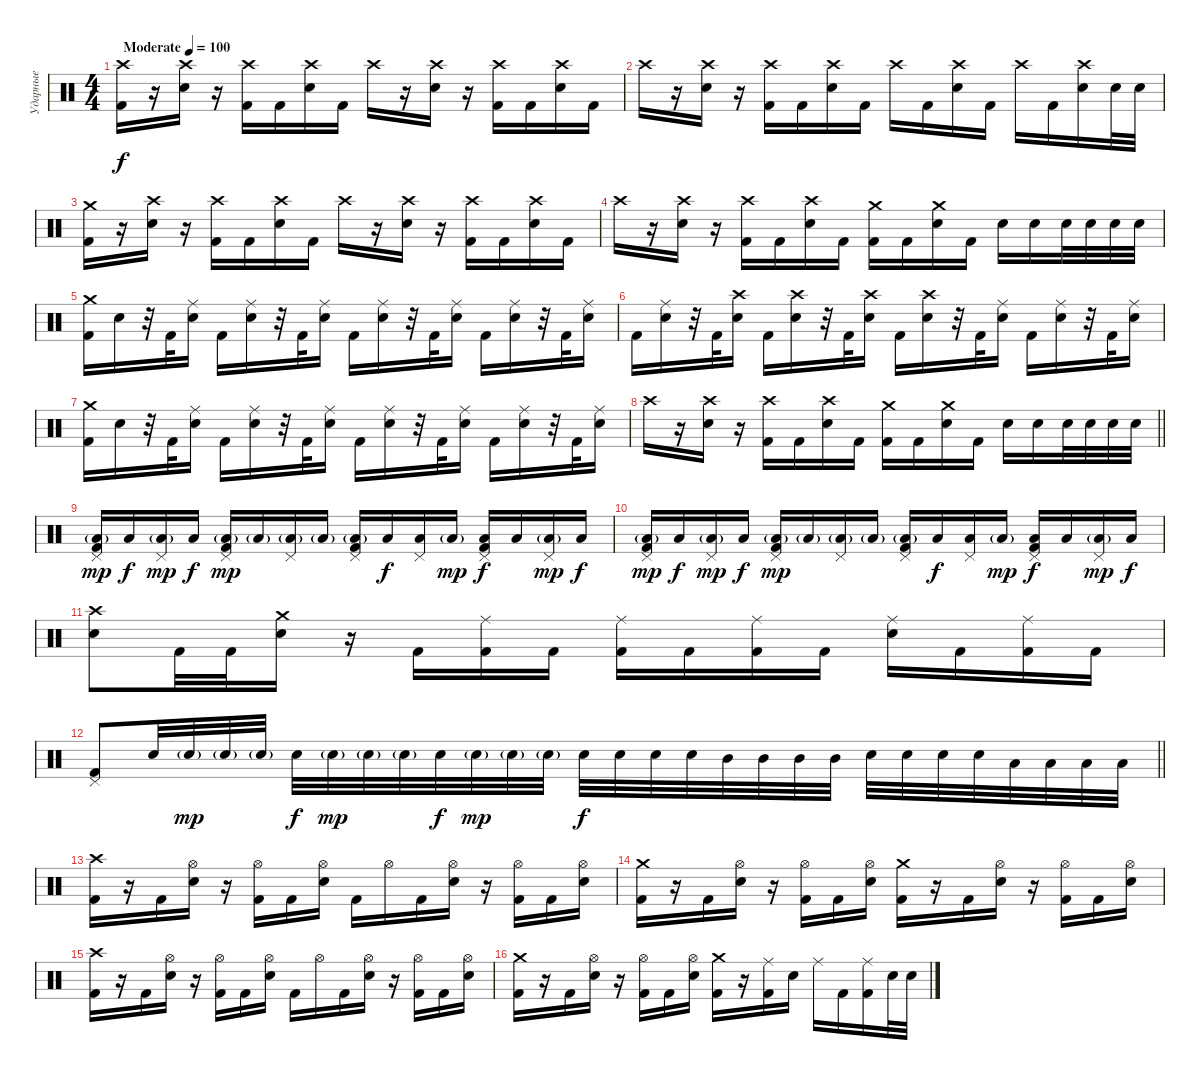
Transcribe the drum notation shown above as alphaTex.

\track ("Ударные" "Ударные") {instrument percussion}
\staff {score}
\articulation defaults
\ts (4 4)
\section ("" "")
\tempo (100 "Moderate")
\clef neutral
\ks c
("Crash high (hit)" "Kick (hit) 2").16{dy f} r.16 ("Crash high (hit)" "Electric Snare (hit)").16 r.16 ("Crash high (hit)" "Kick (hit) 2").16 "Kick (hit) 2".16 ("Crash high (hit)" "Electric Snare (hit)").16 "Kick (hit) 2".16 "Crash high (hit)".16 r.16 ("Crash high (hit)" "Electric Snare (hit)").16 r.16 ("Crash high (hit)" "Kick (hit) 2").16 "Kick (hit) 2".16 ("Crash high (hit)" "Electric Snare (hit)").16 "Kick (hit) 2".16 |
"Crash high (hit)".16 r.16 ("Crash high (hit)" "Electric Snare (hit)").16 r.16 ("Crash high (hit)" "Kick (hit) 2").16 "Kick (hit) 2".16 ("Crash high (hit)" "Electric Snare (hit)").16 "Kick (hit) 2".16 "Crash high (hit)".16 "Kick (hit) 2".16 ("Crash high (hit)" "Electric Snare (hit)").16 "Kick (hit) 2".16 "Crash high (hit)".16 "Kick (hit) 2".16 ("Crash high (hit)" "Electric Snare (hit)").16 "Electric Snare (hit)".32 "Electric Snare (hit)".32 |
("Crash medium (hit)" "Kick (hit) 2").16 r.16 ("Crash high (hit)" "Electric Snare (hit)").16 r.16 ("Crash high (hit)" "Kick (hit) 2").16 "Kick (hit) 2".16 ("Crash high (hit)" "Electric Snare (hit)").16 "Kick (hit) 2".16 "Crash high (hit)".16 r.16 ("Crash high (hit)" "Electric Snare (hit)").16 r.16 ("Crash high (hit)" "Kick (hit) 2").16 "Kick (hit) 2".16 ("Crash high (hit)" "Electric Snare (hit)").16 "Kick (hit) 2".16 |
"Crash high (hit)".16 r.16 ("Crash high (hit)" "Electric Snare (hit)").16 r.16 ("Crash high (hit)" "Kick (hit) 2").16 "Kick (hit) 2".16 ("Crash high (hit)" "Electric Snare (hit)").16 "Kick (hit) 2".16 ("Crash medium (hit)" "Kick (hit) 2").16 "Kick (hit) 2".16 ("Crash medium (hit)" "Electric Snare (hit)").16 "Kick (hit) 2".16 "Electric Snare (hit)".16 "Electric Snare (hit)".16 "Electric Snare (hit)".32 "Electric Snare (hit)".32 "Electric Snare (hit)".32 "Electric Snare (hit)".32 |
("Crash medium (hit)" "Kick (hit) 2").16 "Electric Snare (hit)".16 r.32 "Kick (hit) 2".32 ("Ride (middle)" "Electric Snare (hit)").16 "Kick (hit) 2".16 ("Ride (middle)" "Electric Snare (hit)").16 r.32 "Kick (hit) 2".32 ("Ride (middle)" "Electric Snare (hit)").16 "Kick (hit) 2".16 ("Ride (middle)" "Electric Snare (hit)").16 r.32 "Kick (hit) 2".32 ("Ride (middle)" "Electric Snare (hit)").16 "Kick (hit) 2".16 ("Ride (middle)" "Electric Snare (hit)").16 r.32 "Kick (hit) 2".32 ("Ride (middle)" "Electric Snare (hit)").16 |
"Kick (hit) 2".16 ("Ride (middle)" "Electric Snare (hit)").16 r.32 "Kick (hit) 2".32 ("Crash high (hit)" "Electric Snare (hit)").16 "Kick (hit) 2".16 ("Crash high (hit)" "Electric Snare (hit)").16 r.32 "Kick (hit) 2".32 ("Crash high (hit)" "Electric Snare (hit)").16 "Kick (hit) 2".16 ("Crash high (hit)" "Electric Snare (hit)").16 r.32 "Kick (hit) 2".32 ("Ride (middle)" "Electric Snare (hit)").16 "Kick (hit) 2".16 ("Ride (middle)" "Electric Snare (hit)").16 r.32 "Kick (hit) 2".32 ("Ride (middle)" "Electric Snare (hit)").16 |
("Crash medium (hit)" "Kick (hit) 2").16 "Electric Snare (hit)".16 r.32 "Kick (hit) 2".32 ("Ride (middle)" "Electric Snare (hit)").16 "Kick (hit) 2".16 ("Ride (middle)" "Electric Snare (hit)").16 r.32 "Kick (hit) 2".32 ("Ride (middle)" "Electric Snare (hit)").16 "Kick (hit) 2".16 ("Ride (middle)" "Electric Snare (hit)").16 r.32 "Kick (hit) 2".32 ("Ride (middle)" "Electric Snare (hit)").16 "Kick (hit) 2".16 ("Ride (middle)" "Electric Snare (hit)").16 r.32 "Kick (hit) 2".32 ("Ride (middle)" "Electric Snare (hit)").16 |
\barLineRight lightlight "Crash high (hit)".16
r.16 ("Crash high (hit)" "Electric Snare (hit)").16 r.16 ("Crash high (hit)" "Kick (hit) 2").16 "Kick (hit) 2".16 ("Crash high (hit)" "Electric Snare (hit)").16 "Kick (hit) 2".16 ("Crash medium (hit)" "Kick (hit) 2").16 "Kick (hit) 2".16 ("Crash medium (hit)" "Electric Snare (hit)").16 "Kick (hit) 2".16 "Electric Snare (hit)".16 "Electric Snare (hit)".16 "Electric Snare (hit)".32 "Electric Snare (hit)".32 "Electric Snare (hit)".32 "Electric Snare (hit)".32 |
\section ("" "")
("Pedal Hi-Hat (hit)" "Low Floor Tom (hit)"{g} "Kick (hit) 2").16{dy mp} "Low Floor Tom (hit)".16{dy f} ("Pedal Hi-Hat (hit)" "Low Floor Tom (hit)"{g}).16{dy mp} "Low Floor Tom (hit)".16{dy f} ("Pedal Hi-Hat (hit)" "Low Floor Tom (hit)"{g} "Kick (hit) 2").16{dy mp} "Low Floor Tom (hit)"{g}.16 ("Pedal Hi-Hat (hit)" "Low Floor Tom (hit)"{g}).16 "Low Floor Tom (hit)"{g}.16 ("Pedal Hi-Hat (hit)" "Low Floor Tom (hit)"{g} "Kick (hit) 2").16 "Low Floor Tom (hit)".16{dy f} ("Pedal Hi-Hat (hit)" "Low Floor Tom (hit)").16 "Low Floor Tom (hit)"{g}.16{dy mp} ("Pedal Hi-Hat (hit)" "Low Floor Tom (hit)" "Kick (hit) 2").16{dy f} "Low Floor Tom (hit)".16 ("Pedal Hi-Hat (hit)" "Low Floor Tom (hit)"{g}).16{dy mp} "Low Floor Tom (hit)".16{dy f} |
("Pedal Hi-Hat (hit)" "Low Floor Tom (hit)"{g} "Kick (hit) 2").16{dy mp} "Low Floor Tom (hit)".16{dy f} ("Pedal Hi-Hat (hit)" "Low Floor Tom (hit)"{g}).16{dy mp} "Low Floor Tom (hit)".16{dy f} ("Pedal Hi-Hat (hit)" "Low Floor Tom (hit)"{g} "Kick (hit) 2").16{dy mp} "Low Floor Tom (hit)"{g}.16 ("Pedal Hi-Hat (hit)" "Low Floor Tom (hit)"{g}).16 "Low Floor Tom (hit)"{g}.16 ("Pedal Hi-Hat (hit)" "Low Floor Tom (hit)"{g} "Kick (hit) 2").16 "Low Floor Tom (hit)".16{dy f} ("Pedal Hi-Hat (hit)" "Low Floor Tom (hit)").16 "Low Floor Tom (hit)"{g}.16{dy mp} ("Pedal Hi-Hat (hit)" "Low Floor Tom (hit)" "Kick (hit) 2").16{dy f} "Low Floor Tom (hit)".16 ("Pedal Hi-Hat (hit)" "Low Floor Tom (hit)"{g}).16{dy mp} "Low Floor Tom (hit)".16{dy f} |
("Crash high (hit)" "Electric Snare (hit)").8 "Kick (hit) 2".32 "Kick (hit) 2".32 ("Crash medium (hit)" "Electric Snare (hit)").16 r.16 "Kick (hit) 2".16 ("Ride (middle)" "Kick (hit) 2").16 "Kick (hit) 2".16 ("Ride (middle)" "Kick (hit) 2").16 "Kick (hit) 2".16 ("Ride (middle)" "Kick (hit) 2").16 "Kick (hit) 2".16 ("Ride (middle)" "Electric Snare (hit)").16 "Kick (hit) 2".16 ("Ride (middle)" "Kick (hit) 2").16 "Kick (hit) 2".16 |
\barLineRight lightlight
("Pedal Hi-Hat (hit)" "Kick (hit) 2").8 "Electric Snare (hit)".32 "Electric Snare (hit)"{g}.32{dy mp} "Electric Snare (hit)"{g}.32 "Electric Snare (hit)"{g}.32 "Electric Snare (hit)".32{dy f} "Electric Snare (hit)"{g}.32{dy mp} "Electric Snare (hit)"{g}.32 "Electric Snare (hit)"{g}.32 "Electric Snare (hit)".32{dy f} "Electric Snare (hit)"{g}.32{dy mp} "Electric Snare (hit)"{g}.32 "Electric Snare (hit)"{g}.32 "Electric Snare (hit)".32{dy f} "Electric Snare (hit)".32 "Electric Snare (hit)".32 "Electric Snare (hit)".32 "Mid Tom (hit)".32 "Mid Tom (hit)".32 "Mid Tom (hit)".32 "Mid Tom (hit)".32 "Electric Snare (hit)".32 "Electric Snare (hit)".32 "Electric Snare (hit)".32 "Electric Snare (hit)".32 "Low Tom (hit)".32 "Low Tom (hit)".32 "Low Tom (hit)".32 "Low Tom (hit)".32 |
\section ("" "")
("Crash high (hit)" "Kick (hit) 2").16 r.16 "Kick (hit) 2".16 ("Hi-Hat (open)" "Electric Snare (hit)").16 r.16 ("Hi-Hat (open)" "Kick (hit) 2").16 "Kick (hit) 2".16 ("Hi-Hat (open)" "Electric Snare (hit)").16 "Kick (hit) 2".16 "Hi-Hat (open)".16 "Kick (hit) 2".16 ("Hi-Hat (open)" "Electric Snare (hit)").16 r.16 ("Hi-Hat (open)" "Kick (hit) 2").16 "Kick (hit) 2".16 ("Hi-Hat (open)" "Electric Snare (hit)").16 |
("Crash medium (hit)" "Kick (hit) 2").16 r.16 "Kick (hit) 2".16 ("Hi-Hat (open)" "Electric Snare (hit)").16 r.16 ("Hi-Hat (open)" "Kick (hit) 2").16 "Kick (hit) 2".16 ("Hi-Hat (open)" "Electric Snare (hit)").16 ("Crash medium (hit)" "Kick (hit) 2").16 r.16 "Kick (hit) 2".16 ("Hi-Hat (open)" "Electric Snare (hit)").16 r.16 ("Hi-Hat (open)" "Kick (hit) 2").16 "Kick (hit) 2".16 ("Hi-Hat (open)" "Electric Snare (hit)").16 |
("Crash high (hit)" "Kick (hit) 2").16 r.16 "Kick (hit) 2".16 ("Hi-Hat (open)" "Electric Snare (hit)").16 r.16 ("Hi-Hat (open)" "Kick (hit) 2").16 "Kick (hit) 2".16 ("Hi-Hat (open)" "Electric Snare (hit)").16 "Kick (hit) 2".16 "Hi-Hat (open)".16 "Kick (hit) 2".16 ("Hi-Hat (open)" "Electric Snare (hit)").16 r.16 ("Hi-Hat (open)" "Kick (hit) 2").16 "Kick (hit) 2".16 ("Hi-Hat (open)" "Electric Snare (hit)").16 |
("Crash medium (hit)" "Kick (hit) 2").16 r.16 "Kick (hit) 2".16 ("Hi-Hat (open)" "Electric Snare (hit)").16 r.16 ("Hi-Hat (open)" "Kick (hit) 2").16 "Kick (hit) 2".16 ("Hi-Hat (open)" "Electric Snare (hit)").16 ("Crash medium (hit)" "Kick (hit) 2").16 r.16 ("Ride (middle)" "Kick (hit) 2").16 "Electric Snare (hit)".16 "Ride (middle)".16 "Kick (hit) 2".16 ("Ride (middle)" "Kick (hit) 2").16 "Electric Snare (hit)".32 "Electric Snare (hit)".32
